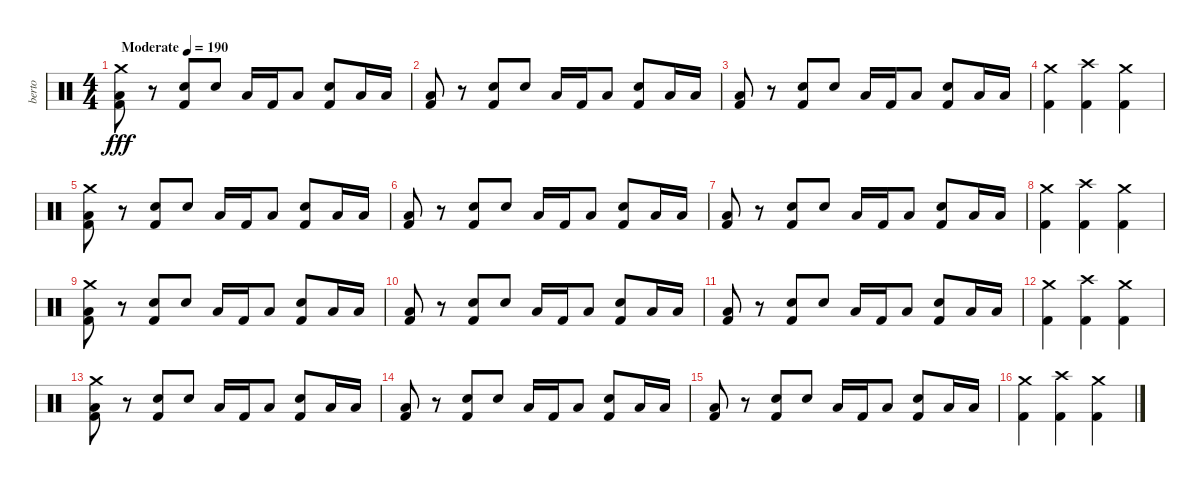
\track ("berto" "berto") {instrument percussion}
\staff {score}
\articulation defaults
\ts (4 4)
\tempo (190 "Moderate")
\clef neutral
\ks c
("Crash medium (hit)" "Low Tom (hit)" "Kick (hit) 2").8{dy fff} r.8 ("Snare (hit) 2" "Kick (hit) 2").8 "Snare (hit) 2".8 "Low Tom (hit)".16 "Kick (hit) 2".16 "Low Tom (hit)".8 ("Snare (hit) 2" "Kick (hit) 2").8 "Low Tom (hit)".16 "Low Tom (hit)".16 |
("Low Tom (hit)" "Kick (hit) 2").8 r.8 ("Snare (hit) 2" "Kick (hit) 2").8 "Snare (hit) 2".8 "Low Tom (hit)".16 "Kick (hit) 2".16 "Low Tom (hit)".8 ("Snare (hit) 2" "Kick (hit) 2").8 "Low Tom (hit)".16 "Low Tom (hit)".16 |
("Low Tom (hit)" "Kick (hit) 2").8 r.8 ("Snare (hit) 2" "Kick (hit) 2").8 "Snare (hit) 2".8 "Low Tom (hit)".16 "Kick (hit) 2".16 "Low Tom (hit)".8 ("Snare (hit) 2" "Kick (hit) 2").8 "Low Tom (hit)".16 "Low Tom (hit)".16 |
("Crash medium (hit)" "Kick (hit) 2").4 ("Crash high (hit)" "Kick (hit) 2").4 ("Crash medium (hit)" "Kick (hit) 2").4 |
("Crash medium (hit)" "Low Tom (hit)" "Kick (hit) 2").8 r.8 ("Snare (hit) 2" "Kick (hit) 2").8 "Snare (hit) 2".8 "Low Tom (hit)".16 "Kick (hit) 2".16 "Low Tom (hit)".8 ("Snare (hit) 2" "Kick (hit) 2").8 "Low Tom (hit)".16 "Low Tom (hit)".16 |
("Low Tom (hit)" "Kick (hit) 2").8 r.8 ("Snare (hit) 2" "Kick (hit) 2").8 "Snare (hit) 2".8 "Low Tom (hit)".16 "Kick (hit) 2".16 "Low Tom (hit)".8 ("Snare (hit) 2" "Kick (hit) 2").8 "Low Tom (hit)".16 "Low Tom (hit)".16 |
("Low Tom (hit)" "Kick (hit) 2").8 r.8 ("Snare (hit) 2" "Kick (hit) 2").8 "Snare (hit) 2".8 "Low Tom (hit)".16 "Kick (hit) 2".16 "Low Tom (hit)".8 ("Snare (hit) 2" "Kick (hit) 2").8 "Low Tom (hit)".16 "Low Tom (hit)".16 |
("Crash medium (hit)" "Kick (hit) 2").4 ("Crash high (hit)" "Kick (hit) 2").4 ("Crash medium (hit)" "Kick (hit) 2").4 |
("Crash medium (hit)" "Low Tom (hit)" "Kick (hit) 2").8 r.8 ("Snare (hit) 2" "Kick (hit) 2").8 "Snare (hit) 2".8 "Low Tom (hit)".16 "Kick (hit) 2".16 "Low Tom (hit)".8 ("Snare (hit) 2" "Kick (hit) 2").8 "Low Tom (hit)".16 "Low Tom (hit)".16 |
("Low Tom (hit)" "Kick (hit) 2").8 r.8 ("Snare (hit) 2" "Kick (hit) 2").8 "Snare (hit) 2".8 "Low Tom (hit)".16 "Kick (hit) 2".16 "Low Tom (hit)".8 ("Snare (hit) 2" "Kick (hit) 2").8 "Low Tom (hit)".16 "Low Tom (hit)".16 |
("Low Tom (hit)" "Kick (hit) 2").8 r.8 ("Snare (hit) 2" "Kick (hit) 2").8 "Snare (hit) 2".8 "Low Tom (hit)".16 "Kick (hit) 2".16 "Low Tom (hit)".8 ("Snare (hit) 2" "Kick (hit) 2").8 "Low Tom (hit)".16 "Low Tom (hit)".16 |
("Crash medium (hit)" "Kick (hit) 2").4 ("Crash high (hit)" "Kick (hit) 2").4 ("Crash medium (hit)" "Kick (hit) 2").4 |
("Crash medium (hit)" "Low Tom (hit)" "Kick (hit) 2").8 r.8 ("Snare (hit) 2" "Kick (hit) 2").8 "Snare (hit) 2".8 "Low Tom (hit)".16 "Kick (hit) 2".16 "Low Tom (hit)".8 ("Snare (hit) 2" "Kick (hit) 2").8 "Low Tom (hit)".16 "Low Tom (hit)".16 |
("Low Tom (hit)" "Kick (hit) 2").8 r.8 ("Snare (hit) 2" "Kick (hit) 2").8 "Snare (hit) 2".8 "Low Tom (hit)".16 "Kick (hit) 2".16 "Low Tom (hit)".8 ("Snare (hit) 2" "Kick (hit) 2").8 "Low Tom (hit)".16 "Low Tom (hit)".16 |
("Low Tom (hit)" "Kick (hit) 2").8 r.8 ("Snare (hit) 2" "Kick (hit) 2").8 "Snare (hit) 2".8 "Low Tom (hit)".16 "Kick (hit) 2".16 "Low Tom (hit)".8 ("Snare (hit) 2" "Kick (hit) 2").8 "Low Tom (hit)".16 "Low Tom (hit)".16 |
("Crash medium (hit)" "Kick (hit) 2").4 ("Crash high (hit)" "Kick (hit) 2").4 ("Crash medium (hit)" "Kick (hit) 2").4
